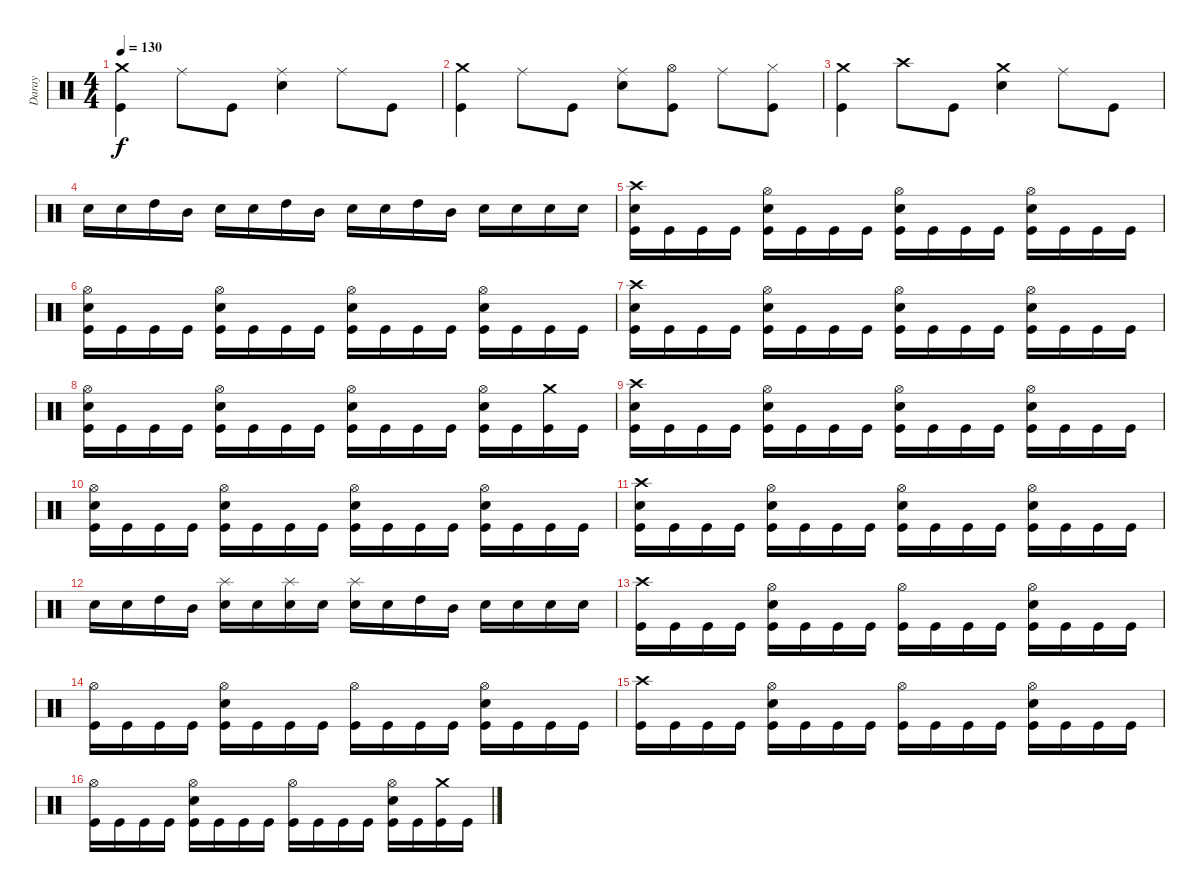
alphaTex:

\track ("Daray" "Daray") {instrument percussion}
\staff {score}
\articulation defaults
\ts (4 4)
\tempo 130
\clef neutral
\ks c
("Crash medium (hit)" "Kick (hit)").4{dy f} "Ride (middle)".8 "Kick (hit)".8 ("Ride (middle)" "Electric Snare (hit)").4 "Ride (middle)".8 "Kick (hit)".8 |
("Crash medium (hit)" "Kick (hit)").4 "Ride (middle)".8 "Kick (hit)".8 ("Ride (middle)" "Electric Snare (hit)").8 ("Hi-Hat (open)" "Kick (hit)").8 "Ride (middle)".8 ("Hi-Hat (closed)" "Kick (hit)").8 |
("Crash medium (hit)" "Kick (hit)").4 "Crash high (hit)".8 "Kick (hit)".8 ("Crash medium (hit)" "Electric Snare (hit)").4 "Ride (middle)".8 "Kick (hit)".8 |
"Electric Snare (hit)".16 "Electric Snare (hit)".16 "High Tom (hit)".16 "Mid Tom (hit)".16 "Electric Snare (hit)".16 "Electric Snare (hit)".16 "High Tom (hit)".16 "Mid Tom (hit)".16 "Electric Snare (hit)".16 "Electric Snare (hit)".16 "High Tom (hit)".16 "Mid Tom (hit)".16 "Electric Snare (hit)".16 "Electric Snare (hit)".16 "Electric Snare (hit)".16 "Electric Snare (hit)".16 |
("Crash high (hit)" "Electric Snare (hit)" "Kick (hit)").16 "Kick (hit)".16 "Kick (hit)".16 "Kick (hit)".16 ("Hi-Hat (open)" "Electric Snare (hit)" "Kick (hit)").16 "Kick (hit)".16 "Kick (hit)".16 "Kick (hit)".16 ("Hi-Hat (open)" "Electric Snare (hit)" "Kick (hit)").16 "Kick (hit)".16 "Kick (hit)".16 "Kick (hit)".16 ("Hi-Hat (open)" "Electric Snare (hit)" "Kick (hit)").16 "Kick (hit)".16 "Kick (hit)".16 "Kick (hit)".16 |
("Hi-Hat (open)" "Electric Snare (hit)" "Kick (hit)").16 "Kick (hit)".16 "Kick (hit)".16 "Kick (hit)".16 ("Hi-Hat (open)" "Electric Snare (hit)" "Kick (hit)").16 "Kick (hit)".16 "Kick (hit)".16 "Kick (hit)".16 ("Hi-Hat (open)" "Electric Snare (hit)" "Kick (hit)").16 "Kick (hit)".16 "Kick (hit)".16 "Kick (hit)".16 ("Hi-Hat (open)" "Electric Snare (hit)" "Kick (hit)").16 "Kick (hit)".16 "Kick (hit)".16 "Kick (hit)".16 |
("Crash high (hit)" "Electric Snare (hit)" "Kick (hit)").16 "Kick (hit)".16 "Kick (hit)".16 "Kick (hit)".16 ("Hi-Hat (open)" "Electric Snare (hit)" "Kick (hit)").16 "Kick (hit)".16 "Kick (hit)".16 "Kick (hit)".16 ("Hi-Hat (open)" "Electric Snare (hit)" "Kick (hit)").16 "Kick (hit)".16 "Kick (hit)".16 "Kick (hit)".16 ("Hi-Hat (open)" "Electric Snare (hit)" "Kick (hit)").16 "Kick (hit)".16 "Kick (hit)".16 "Kick (hit)".16 |
("Hi-Hat (open)" "Electric Snare (hit)" "Kick (hit)").16 "Kick (hit)".16 "Kick (hit)".16 "Kick (hit)".16 ("Hi-Hat (open)" "Electric Snare (hit)" "Kick (hit)").16 "Kick (hit)".16 "Kick (hit)".16 "Kick (hit)".16 ("Hi-Hat (open)" "Electric Snare (hit)" "Kick (hit)").16 "Kick (hit)".16 "Kick (hit)".16 "Kick (hit)".16 ("Hi-Hat (open)" "Electric Snare (hit)" "Kick (hit)").16 "Kick (hit)".16 ("Crash medium (hit)" "Kick (hit)").16 "Kick (hit)".16 |
("Crash high (hit)" "Electric Snare (hit)" "Kick (hit)").16 "Kick (hit)".16 "Kick (hit)".16 "Kick (hit)".16 ("Hi-Hat (open)" "Electric Snare (hit)" "Kick (hit)").16 "Kick (hit)".16 "Kick (hit)".16 "Kick (hit)".16 ("Hi-Hat (open)" "Electric Snare (hit)" "Kick (hit)").16 "Kick (hit)".16 "Kick (hit)".16 "Kick (hit)".16 ("Hi-Hat (open)" "Electric Snare (hit)" "Kick (hit)").16 "Kick (hit)".16 "Kick (hit)".16 "Kick (hit)".16 |
("Hi-Hat (open)" "Electric Snare (hit)" "Kick (hit)").16 "Kick (hit)".16 "Kick (hit)".16 "Kick (hit)".16 ("Hi-Hat (open)" "Electric Snare (hit)" "Kick (hit)").16 "Kick (hit)".16 "Kick (hit)".16 "Kick (hit)".16 ("Hi-Hat (open)" "Electric Snare (hit)" "Kick (hit)").16 "Kick (hit)".16 "Kick (hit)".16 "Kick (hit)".16 ("Hi-Hat (open)" "Electric Snare (hit)" "Kick (hit)").16 "Kick (hit)".16 "Kick (hit)".16 "Kick (hit)".16 |
("Crash high (hit)" "Electric Snare (hit)" "Kick (hit)").16 "Kick (hit)".16 "Kick (hit)".16 "Kick (hit)".16 ("Hi-Hat (open)" "Electric Snare (hit)" "Kick (hit)").16 "Kick (hit)".16 "Kick (hit)".16 "Kick (hit)".16 ("Hi-Hat (open)" "Electric Snare (hit)" "Kick (hit)").16 "Kick (hit)".16 "Kick (hit)".16 "Kick (hit)".16 ("Hi-Hat (open)" "Electric Snare (hit)" "Kick (hit)").16 "Kick (hit)".16 "Kick (hit)".16 "Kick (hit)".16 |
"Electric Snare (hit)".16 "Electric Snare (hit)".16 "High Tom (hit)".16 "Mid Tom (hit)".16 ("Splash (hit)" "Electric Snare (hit)").16 "Electric Snare (hit)".16 ("Splash (hit)" "Electric Snare (hit)").16 "Electric Snare (hit)".16 ("Splash (hit)" "Electric Snare (hit)").16 "Electric Snare (hit)".16 "High Tom (hit)".16 "Mid Tom (hit)".16 "Electric Snare (hit)".16 "Electric Snare (hit)".16 "Electric Snare (hit)".16 "Electric Snare (hit)".16 |
("Crash high (hit)" "Kick (hit)").16 "Kick (hit)".16 "Kick (hit)".16 "Kick (hit)".16 ("Hi-Hat (open)" "Electric Snare (hit)" "Kick (hit)").16 "Kick (hit)".16 "Kick (hit)".16 "Kick (hit)".16 ("Hi-Hat (open)" "Kick (hit)").16 "Kick (hit)".16 "Kick (hit)".16 "Kick (hit)".16 ("Hi-Hat (open)" "Electric Snare (hit)" "Kick (hit)").16 "Kick (hit)".16 "Kick (hit)".16 "Kick (hit)".16 |
("Hi-Hat (open)" "Kick (hit)").16 "Kick (hit)".16 "Kick (hit)".16 "Kick (hit)".16 ("Hi-Hat (open)" "Electric Snare (hit)" "Kick (hit)").16 "Kick (hit)".16 "Kick (hit)".16 "Kick (hit)".16 ("Hi-Hat (open)" "Kick (hit)").16 "Kick (hit)".16 "Kick (hit)".16 "Kick (hit)".16 ("Hi-Hat (open)" "Electric Snare (hit)" "Kick (hit)").16 "Kick (hit)".16 "Kick (hit)".16 "Kick (hit)".16 |
("Crash high (hit)" "Kick (hit)").16 "Kick (hit)".16 "Kick (hit)".16 "Kick (hit)".16 ("Hi-Hat (open)" "Electric Snare (hit)" "Kick (hit)").16 "Kick (hit)".16 "Kick (hit)".16 "Kick (hit)".16 ("Hi-Hat (open)" "Kick (hit)").16 "Kick (hit)".16 "Kick (hit)".16 "Kick (hit)".16 ("Hi-Hat (open)" "Electric Snare (hit)" "Kick (hit)").16 "Kick (hit)".16 "Kick (hit)".16 "Kick (hit)".16 |
("Hi-Hat (open)" "Kick (hit)").16 "Kick (hit)".16 "Kick (hit)".16 "Kick (hit)".16 ("Hi-Hat (open)" "Electric Snare (hit)" "Kick (hit)").16 "Kick (hit)".16 "Kick (hit)".16 "Kick (hit)".16 ("Hi-Hat (open)" "Kick (hit)").16 "Kick (hit)".16 "Kick (hit)".16 "Kick (hit)".16 ("Hi-Hat (open)" "Electric Snare (hit)" "Kick (hit)").16 "Kick (hit)".16 ("Crash medium (hit)" "Kick (hit)").16 "Kick (hit)".16
